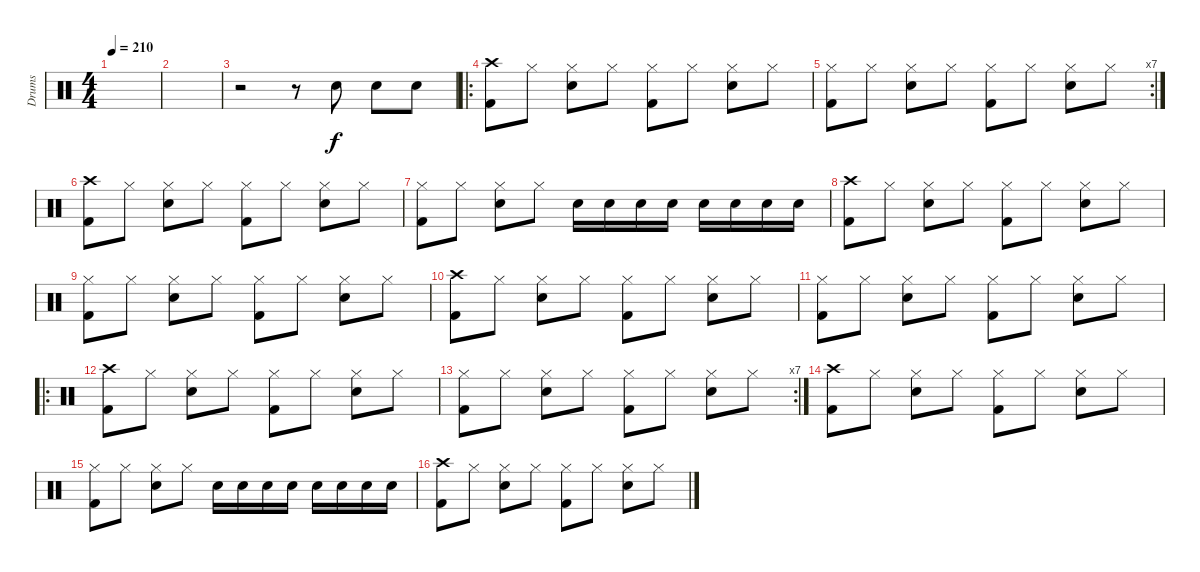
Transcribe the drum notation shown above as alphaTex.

\track ("Drums" "Drums") {instrument percussion}
\staff {score}
\articulation defaults
\ts (4 4)
\tempo 210
\clef neutral
\ks c
|
|
r.2 r.8 "Snare (hit) 2".8 "Snare (hit) 2".8 "Snare (hit) 2".8 |
\ro
("Crash high (hit)" "Kick (hit) 2").8 "Hi-Hat (closed)".8 ("Hi-Hat (closed)" "Snare (hit) 2").8 "Hi-Hat (closed)".8 ("Hi-Hat (closed)" "Kick (hit) 2").8 "Hi-Hat (closed)".8 ("Hi-Hat (closed)" "Snare (hit) 2").8 "Hi-Hat (closed)".8 |
\rc 7
("Hi-Hat (closed)" "Kick (hit) 2").8 "Hi-Hat (closed)".8 ("Hi-Hat (closed)" "Snare (hit) 2").8 "Hi-Hat (closed)".8 ("Hi-Hat (closed)" "Kick (hit) 2").8 "Hi-Hat (closed)".8 ("Hi-Hat (closed)" "Snare (hit) 2").8 "Hi-Hat (closed)".8 |
("Crash high (hit)" "Kick (hit) 2").8 "Hi-Hat (closed)".8 ("Hi-Hat (closed)" "Snare (hit) 2").8 "Hi-Hat (closed)".8 ("Hi-Hat (closed)" "Kick (hit) 2").8 "Hi-Hat (closed)".8 ("Hi-Hat (closed)" "Snare (hit) 2").8 "Hi-Hat (closed)".8 |
("Hi-Hat (closed)" "Kick (hit) 2").8 "Hi-Hat (closed)".8 ("Hi-Hat (closed)" "Snare (hit) 2").8 "Hi-Hat (closed)".8 "Snare (hit) 2".16 "Snare (hit) 2".16 "Snare (hit) 2".16 "Snare (hit) 2".16 "Snare (hit) 2".16 "Snare (hit) 2".16 "Snare (hit) 2".16 "Snare (hit) 2".16 |
("Crash high (hit)" "Kick (hit) 2").8 "Hi-Hat (closed)".8 ("Hi-Hat (closed)" "Snare (hit) 2").8 "Hi-Hat (closed)".8 ("Hi-Hat (closed)" "Kick (hit) 2").8 "Hi-Hat (closed)".8 ("Hi-Hat (closed)" "Snare (hit) 2").8 "Hi-Hat (closed)".8 |
("Hi-Hat (closed)" "Kick (hit) 2").8 "Hi-Hat (closed)".8 ("Hi-Hat (closed)" "Snare (hit) 2").8 "Hi-Hat (closed)".8 ("Hi-Hat (closed)" "Kick (hit) 2").8 "Hi-Hat (closed)".8 ("Hi-Hat (closed)" "Snare (hit) 2").8 "Hi-Hat (closed)".8 |
("Crash high (hit)" "Kick (hit) 2").8 "Hi-Hat (closed)".8 ("Hi-Hat (closed)" "Snare (hit) 2").8 "Hi-Hat (closed)".8 ("Hi-Hat (closed)" "Kick (hit) 2").8 "Hi-Hat (closed)".8 ("Hi-Hat (closed)" "Snare (hit) 2").8 "Hi-Hat (closed)".8 |
("Hi-Hat (closed)" "Kick (hit) 2").8 "Hi-Hat (closed)".8 ("Hi-Hat (closed)" "Snare (hit) 2").8 "Hi-Hat (closed)".8 ("Hi-Hat (closed)" "Kick (hit) 2").8 "Hi-Hat (closed)".8 ("Hi-Hat (closed)" "Snare (hit) 2").8 "Hi-Hat (closed)".8 |
\ro
("Crash high (hit)" "Kick (hit) 2").8 "Hi-Hat (closed)".8 ("Hi-Hat (closed)" "Snare (hit) 2").8 "Hi-Hat (closed)".8 ("Hi-Hat (closed)" "Kick (hit) 2").8 "Hi-Hat (closed)".8 ("Hi-Hat (closed)" "Snare (hit) 2").8 "Hi-Hat (closed)".8 |
\rc 7
("Hi-Hat (closed)" "Kick (hit) 2").8 "Hi-Hat (closed)".8 ("Hi-Hat (closed)" "Snare (hit) 2").8 "Hi-Hat (closed)".8 ("Hi-Hat (closed)" "Kick (hit) 2").8 "Hi-Hat (closed)".8 ("Hi-Hat (closed)" "Snare (hit) 2").8 "Hi-Hat (closed)".8 |
("Crash high (hit)" "Kick (hit) 2").8 "Hi-Hat (closed)".8 ("Hi-Hat (closed)" "Snare (hit) 2").8 "Hi-Hat (closed)".8 ("Hi-Hat (closed)" "Kick (hit) 2").8 "Hi-Hat (closed)".8 ("Hi-Hat (closed)" "Snare (hit) 2").8 "Hi-Hat (closed)".8 |
("Hi-Hat (closed)" "Kick (hit) 2").8 "Hi-Hat (closed)".8 ("Hi-Hat (closed)" "Snare (hit) 2").8 "Hi-Hat (closed)".8 "Snare (hit) 2".16 "Snare (hit) 2".16 "Snare (hit) 2".16 "Snare (hit) 2".16 "Snare (hit) 2".16 "Snare (hit) 2".16 "Snare (hit) 2".16 "Snare (hit) 2".16 |
("Crash high (hit)" "Kick (hit) 2").8 "Hi-Hat (closed)".8 ("Hi-Hat (closed)" "Snare (hit) 2").8 "Hi-Hat (closed)".8 ("Hi-Hat (closed)" "Kick (hit) 2").8 "Hi-Hat (closed)".8 ("Hi-Hat (closed)" "Snare (hit) 2").8 "Hi-Hat (closed)".8
